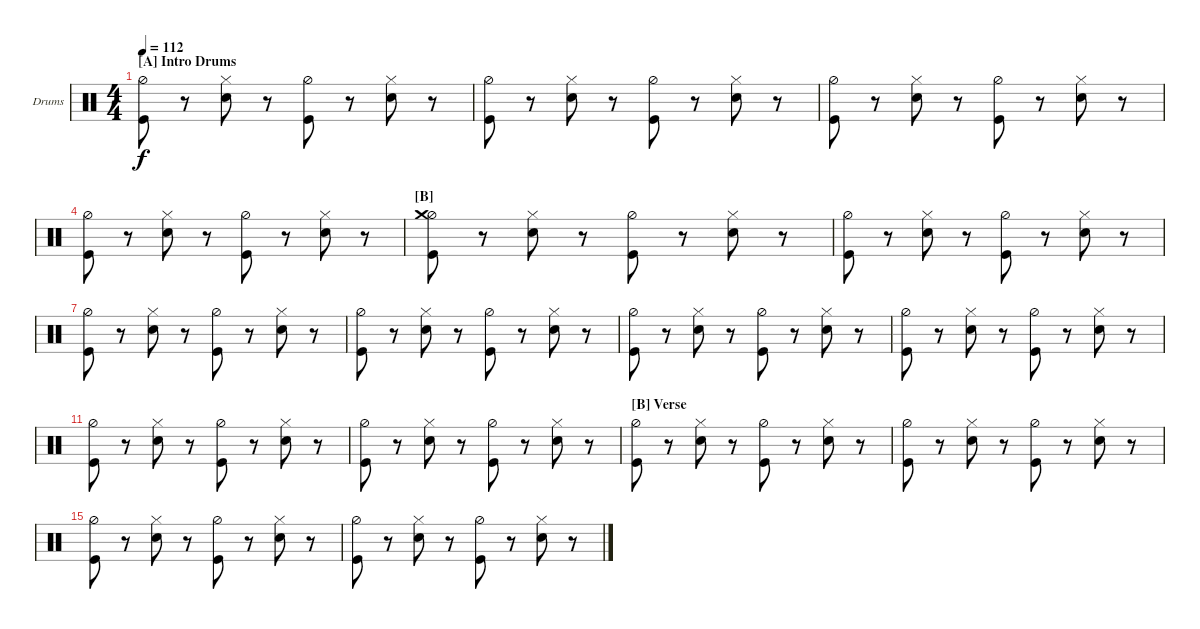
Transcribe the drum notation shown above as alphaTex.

\bracketExtendMode nobrackets
\firstSystemTrackNameOrientation horizontal
\otherSystemsTrackNameOrientation horizontal
\defaultBarNumberDisplay FirstOfSystem
\track ("Drumkit" "Drums") {instrument percussion}
\staff {score}
\articulation defaults
\ts (4 4)
\section ("A" "Intro Drums")
\tempo 112
\clef neutral
\scale
0.472222
\ks c
("Kick (hit)" "Hi-Hat (half)").8{dy f} r.8 ("Snare (hit) 2" "Hi-Hat (closed)").8 r.8 ("Kick (hit)" "Hi-Hat (half)").8 r.8 ("Snare (hit) 2" "Hi-Hat (closed)").8 r.8 |
\scale
0.263889 ("Kick (hit)" "Hi-Hat (half)").8 r.8 ("Snare (hit) 2" "Hi-Hat (closed)").8 r.8 ("Kick (hit)" "Hi-Hat (half)").8 r.8 ("Snare (hit) 2" "Hi-Hat (closed)").8 r.8 |
\scale
0.263889 ("Kick (hit)" "Hi-Hat (half)").8 r.8 ("Snare (hit) 2" "Hi-Hat (closed)").8 r.8 ("Kick (hit)" "Hi-Hat (half)").8 r.8 ("Snare (hit) 2" "Hi-Hat (closed)").8 r.8 |
\scale
0.333333 ("Kick (hit)" "Hi-Hat (half)").8 r.8 ("Snare (hit) 2" "Hi-Hat (closed)").8 r.8 ("Kick (hit)" "Hi-Hat (half)").8 r.8 ("Snare (hit) 2" "Hi-Hat (closed)").8 r.8 |
\section ("B" "")
\scale
0.333333 ("Kick (hit)" "Hi-Hat (half)" "Crash medium (hit)").8 r.8 ("Snare (hit) 2" "Hi-Hat (closed)").8 r.8 ("Kick (hit)" "Hi-Hat (half)").8 r.8 ("Snare (hit) 2" "Hi-Hat (closed)").8 r.8 |
\scale
0.333333 ("Kick (hit)" "Hi-Hat (half)").8 r.8 ("Snare (hit) 2" "Hi-Hat (closed)").8 r.8 ("Kick (hit)" "Hi-Hat (half)").8 r.8 ("Snare (hit) 2" "Hi-Hat (closed)").8 r.8 |
\scale
0.333333 ("Kick (hit)" "Hi-Hat (half)").8 r.8 ("Snare (hit) 2" "Hi-Hat (closed)").8 r.8 ("Kick (hit)" "Hi-Hat (half)").8 r.8 ("Snare (hit) 2" "Hi-Hat (closed)").8 r.8 |
\scale
0.333333 ("Kick (hit)" "Hi-Hat (half)").8 r.8 ("Snare (hit) 2" "Hi-Hat (closed)").8 r.8 ("Kick (hit)" "Hi-Hat (half)").8 r.8 ("Snare (hit) 2" "Hi-Hat (closed)").8 r.8 |
\scale
0.333333 ("Kick (hit)" "Hi-Hat (half)").8 r.8 ("Snare (hit) 2" "Hi-Hat (closed)").8 r.8 ("Kick (hit)" "Hi-Hat (half)").8 r.8 ("Snare (hit) 2" "Hi-Hat (closed)").8 r.8 |
\scale
0.333333 ("Kick (hit)" "Hi-Hat (half)").8 r.8 ("Snare (hit) 2" "Hi-Hat (closed)").8 r.8 ("Kick (hit)" "Hi-Hat (half)").8 r.8 ("Snare (hit) 2" "Hi-Hat (closed)").8 r.8 |
\scale
0.333333 ("Kick (hit)" "Hi-Hat (half)").8 r.8 ("Snare (hit) 2" "Hi-Hat (closed)").8 r.8 ("Kick (hit)" "Hi-Hat (half)").8 r.8 ("Snare (hit) 2" "Hi-Hat (closed)").8 r.8 |
\scale
0.333333 ("Kick (hit)" "Hi-Hat (half)").8 r.8 ("Snare (hit) 2" "Hi-Hat (closed)").8 r.8 ("Kick (hit)" "Hi-Hat (half)").8 r.8 ("Snare (hit) 2" "Hi-Hat (closed)").8 r.8 |
\section ("B" "Verse")
\scale
0.333333 ("Kick (hit)" "Hi-Hat (half)").8 r.8 ("Snare (hit) 2" "Hi-Hat (closed)").8 r.8 ("Kick (hit)" "Hi-Hat (half)").8 r.8 ("Snare (hit) 2" "Hi-Hat (closed)").8 r.8 |
\scale
0.333333 ("Kick (hit)" "Hi-Hat (half)").8 r.8 ("Snare (hit) 2" "Hi-Hat (closed)").8 r.8 ("Kick (hit)" "Hi-Hat (half)").8 r.8 ("Snare (hit) 2" "Hi-Hat (closed)").8 r.8 |
\scale
0.333333 ("Kick (hit)" "Hi-Hat (half)").8 r.8 ("Snare (hit) 2" "Hi-Hat (closed)").8 r.8 ("Kick (hit)" "Hi-Hat (half)").8 r.8 ("Snare (hit) 2" "Hi-Hat (closed)").8 r.8 |
\scale
0.333333 ("Kick (hit)" "Hi-Hat (half)").8 r.8 ("Snare (hit) 2" "Hi-Hat (closed)").8 r.8 ("Kick (hit)" "Hi-Hat (half)").8 r.8 ("Snare (hit) 2" "Hi-Hat (closed)").8 r.8
